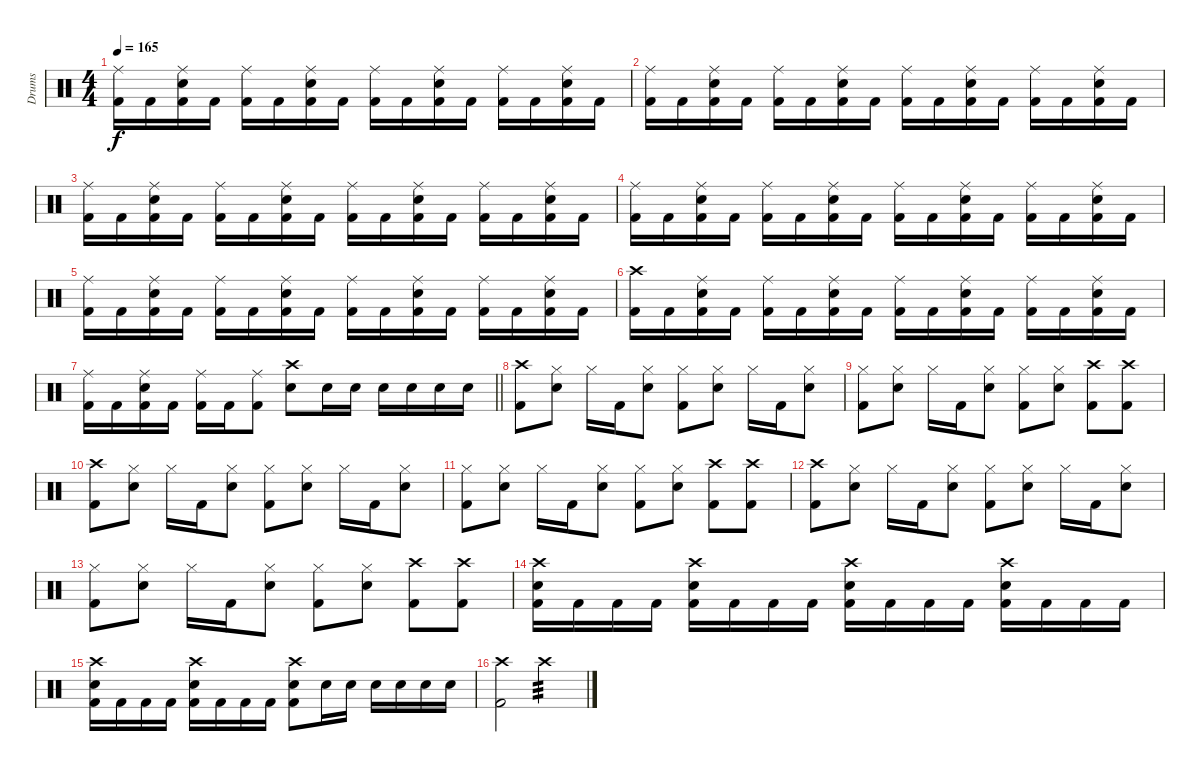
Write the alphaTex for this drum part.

\track ("Drums" "Drums") {instrument percussion}
\staff {score}
\articulation defaults
\ts (4 4)
\tempo 165
\clef neutral
\ks c
("Ride (middle)" "Kick (hit) 2").16{dy f} "Kick (hit) 2".16 ("Ride (middle)" "Snare (hit) 2" "Kick (hit) 2").16 "Kick (hit) 2".16 ("Ride (middle)" "Kick (hit) 2").16 "Kick (hit) 2".16 ("Ride (middle)" "Snare (hit) 2" "Kick (hit) 2").16 "Kick (hit) 2".16 ("Ride (middle)" "Kick (hit) 2").16 "Kick (hit) 2".16 ("Ride (middle)" "Snare (hit) 2" "Kick (hit) 2").16 "Kick (hit) 2".16 ("Ride (middle)" "Kick (hit) 2").16 "Kick (hit) 2".16 ("Ride (middle)" "Snare (hit) 2" "Kick (hit) 2").16 "Kick (hit) 2".16 |
("Ride (middle)" "Kick (hit) 2").16 "Kick (hit) 2".16 ("Ride (middle)" "Snare (hit) 2" "Kick (hit) 2").16 "Kick (hit) 2".16 ("Ride (middle)" "Kick (hit) 2").16 "Kick (hit) 2".16 ("Ride (middle)" "Snare (hit) 2" "Kick (hit) 2").16 "Kick (hit) 2".16 ("Ride (middle)" "Kick (hit) 2").16 "Kick (hit) 2".16 ("Ride (middle)" "Snare (hit) 2" "Kick (hit) 2").16 "Kick (hit) 2".16 ("Ride (middle)" "Kick (hit) 2").16 "Kick (hit) 2".16 ("Ride (middle)" "Snare (hit) 2" "Kick (hit) 2").16 "Kick (hit) 2".16 |
("Ride (middle)" "Kick (hit) 2").16 "Kick (hit) 2".16 ("Ride (middle)" "Snare (hit) 2" "Kick (hit) 2").16 "Kick (hit) 2".16 ("Ride (middle)" "Kick (hit) 2").16 "Kick (hit) 2".16 ("Ride (middle)" "Snare (hit) 2" "Kick (hit) 2").16 "Kick (hit) 2".16 ("Ride (middle)" "Kick (hit) 2").16 "Kick (hit) 2".16 ("Ride (middle)" "Snare (hit) 2" "Kick (hit) 2").16 "Kick (hit) 2".16 ("Ride (middle)" "Kick (hit) 2").16 "Kick (hit) 2".16 ("Ride (middle)" "Snare (hit) 2" "Kick (hit) 2").16 "Kick (hit) 2".16 |
("Ride (middle)" "Kick (hit) 2").16 "Kick (hit) 2".16 ("Ride (middle)" "Snare (hit) 2" "Kick (hit) 2").16 "Kick (hit) 2".16 ("Ride (middle)" "Kick (hit) 2").16 "Kick (hit) 2".16 ("Ride (middle)" "Snare (hit) 2" "Kick (hit) 2").16 "Kick (hit) 2".16 ("Ride (middle)" "Kick (hit) 2").16 "Kick (hit) 2".16 ("Ride (middle)" "Snare (hit) 2" "Kick (hit) 2").16 "Kick (hit) 2".16 ("Ride (middle)" "Kick (hit) 2").16 "Kick (hit) 2".16 ("Ride (middle)" "Snare (hit) 2" "Kick (hit) 2").16 "Kick (hit) 2".16 |
("Ride (middle)" "Kick (hit) 2").16 "Kick (hit) 2".16 ("Ride (middle)" "Snare (hit) 2" "Kick (hit) 2").16 "Kick (hit) 2".16 ("Ride (middle)" "Kick (hit) 2").16 "Kick (hit) 2".16 ("Ride (middle)" "Snare (hit) 2" "Kick (hit) 2").16 "Kick (hit) 2".16 ("Ride (middle)" "Kick (hit) 2").16 "Kick (hit) 2".16 ("Ride (middle)" "Snare (hit) 2" "Kick (hit) 2").16 "Kick (hit) 2".16 ("Ride (middle)" "Kick (hit) 2").16 "Kick (hit) 2".16 ("Ride (middle)" "Snare (hit) 2" "Kick (hit) 2").16 "Kick (hit) 2".16 |
("Crash high (hit)" "Kick (hit) 2").16 "Kick (hit) 2".16 ("Ride (middle)" "Snare (hit) 2" "Kick (hit) 2").16 "Kick (hit) 2".16 ("Ride (middle)" "Kick (hit) 2").16 "Kick (hit) 2".16 ("Ride (middle)" "Snare (hit) 2" "Kick (hit) 2").16 "Kick (hit) 2".16 ("Ride (middle)" "Kick (hit) 2").16 "Kick (hit) 2".16 ("Ride (middle)" "Snare (hit) 2" "Kick (hit) 2").16 "Kick (hit) 2".16 ("Ride (middle)" "Kick (hit) 2").16 "Kick (hit) 2".16 ("Ride (middle)" "Snare (hit) 2" "Kick (hit) 2").16 "Kick (hit) 2".16 |
\barLineRight lightlight
("Ride (middle)" "Kick (hit) 2").16 "Kick (hit) 2".16 ("Ride (middle)" "Snare (hit) 2" "Kick (hit) 2").16 "Kick (hit) 2".16 ("Ride (middle)" "Kick (hit) 2").16 "Kick (hit) 2".16 ("Ride (middle)" "Kick (hit) 2").8 ("Crash high (hit)" "Snare (hit) 2").8 "Snare (hit) 2".16 "Snare (hit) 2".16 "Snare (hit) 2".16 "Snare (hit) 2".16 "Snare (hit) 2".16 "Snare (hit) 2".16 |
("Crash high (hit)" "Kick (hit) 2").8 ("Hi-Hat (closed)" "Snare (hit) 2").8 "Hi-Hat (closed)".16 "Kick (hit) 2".16 ("Hi-Hat (closed)" "Snare (hit) 2").8 ("Hi-Hat (closed)" "Kick (hit) 2").8 ("Hi-Hat (closed)" "Snare (hit) 2").8 "Hi-Hat (closed)".16 "Kick (hit) 2".16 ("Hi-Hat (closed)" "Snare (hit) 2").8 |
("Hi-Hat (closed)" "Kick (hit) 2").8 ("Hi-Hat (closed)" "Snare (hit) 2").8 "Hi-Hat (closed)".16 "Kick (hit) 2".16 ("Hi-Hat (closed)" "Snare (hit) 2").8 ("Hi-Hat (closed)" "Kick (hit) 2").8 ("Hi-Hat (closed)" "Snare (hit) 2").8 ("Crash high (hit)" "Kick (hit) 2").8 ("Crash high (hit)" "Kick (hit) 2").8 |
("Crash high (hit)" "Kick (hit) 2").8 ("Hi-Hat (closed)" "Snare (hit) 2").8 "Hi-Hat (closed)".16 "Kick (hit) 2".16 ("Hi-Hat (closed)" "Snare (hit) 2").8 ("Hi-Hat (closed)" "Kick (hit) 2").8 ("Hi-Hat (closed)" "Snare (hit) 2").8 "Hi-Hat (closed)".16 "Kick (hit) 2".16 ("Hi-Hat (closed)" "Snare (hit) 2").8 |
("Hi-Hat (closed)" "Kick (hit) 2").8 ("Hi-Hat (closed)" "Snare (hit) 2").8 "Hi-Hat (closed)".16 "Kick (hit) 2".16 ("Hi-Hat (closed)" "Snare (hit) 2").8 ("Hi-Hat (closed)" "Kick (hit) 2").8 ("Hi-Hat (closed)" "Snare (hit) 2").8 ("Crash high (hit)" "Kick (hit) 2").8 ("Crash high (hit)" "Kick (hit) 2").8 |
("Crash high (hit)" "Kick (hit) 2").8 ("Hi-Hat (closed)" "Snare (hit) 2").8 "Hi-Hat (closed)".16 "Kick (hit) 2".16 ("Hi-Hat (closed)" "Snare (hit) 2").8 ("Hi-Hat (closed)" "Kick (hit) 2").8 ("Hi-Hat (closed)" "Snare (hit) 2").8 "Hi-Hat (closed)".16 "Kick (hit) 2".16 ("Hi-Hat (closed)" "Snare (hit) 2").8 |
("Hi-Hat (closed)" "Kick (hit) 2").8 ("Hi-Hat (closed)" "Snare (hit) 2").8 "Hi-Hat (closed)".16 "Kick (hit) 2".16 ("Hi-Hat (closed)" "Snare (hit) 2").8 ("Hi-Hat (closed)" "Kick (hit) 2").8 ("Hi-Hat (closed)" "Snare (hit) 2").8 ("Crash high (hit)" "Kick (hit) 2").8 ("Crash high (hit)" "Kick (hit) 2").8 |
("Crash high (hit)" "Snare (hit) 2" "Kick (hit) 2").16 "Kick (hit) 2".16 "Kick (hit) 2".16 "Kick (hit) 2".16 ("Crash high (hit)" "Snare (hit) 2" "Kick (hit) 2").16 "Kick (hit) 2".16 "Kick (hit) 2".16 "Kick (hit) 2".16 ("Crash high (hit)" "Snare (hit) 2" "Kick (hit) 2").16 "Kick (hit) 2".16 "Kick (hit) 2".16 "Kick (hit) 2".16 ("Crash high (hit)" "Snare (hit) 2" "Kick (hit) 2").16 "Kick (hit) 2".16 "Kick (hit) 2".16 "Kick (hit) 2".16 |
("Crash high (hit)" "Snare (hit) 2" "Kick (hit) 2").16 "Kick (hit) 2".16 "Kick (hit) 2".16 "Kick (hit) 2".16 ("Crash high (hit)" "Snare (hit) 2" "Kick (hit) 2").16 "Kick (hit) 2".16 "Kick (hit) 2".16 "Kick (hit) 2".16 ("Crash high (hit)" "Snare (hit) 2" "Kick (hit) 2").8 "Snare (hit) 2".16 "Snare (hit) 2".16 "Snare (hit) 2".16 "Snare (hit) 2".16 "Snare (hit) 2".16 "Snare (hit) 2".16 |
("Crash high (hit)" "Kick (hit) 2").2 "Crash high (hit)".2{tp 3}
